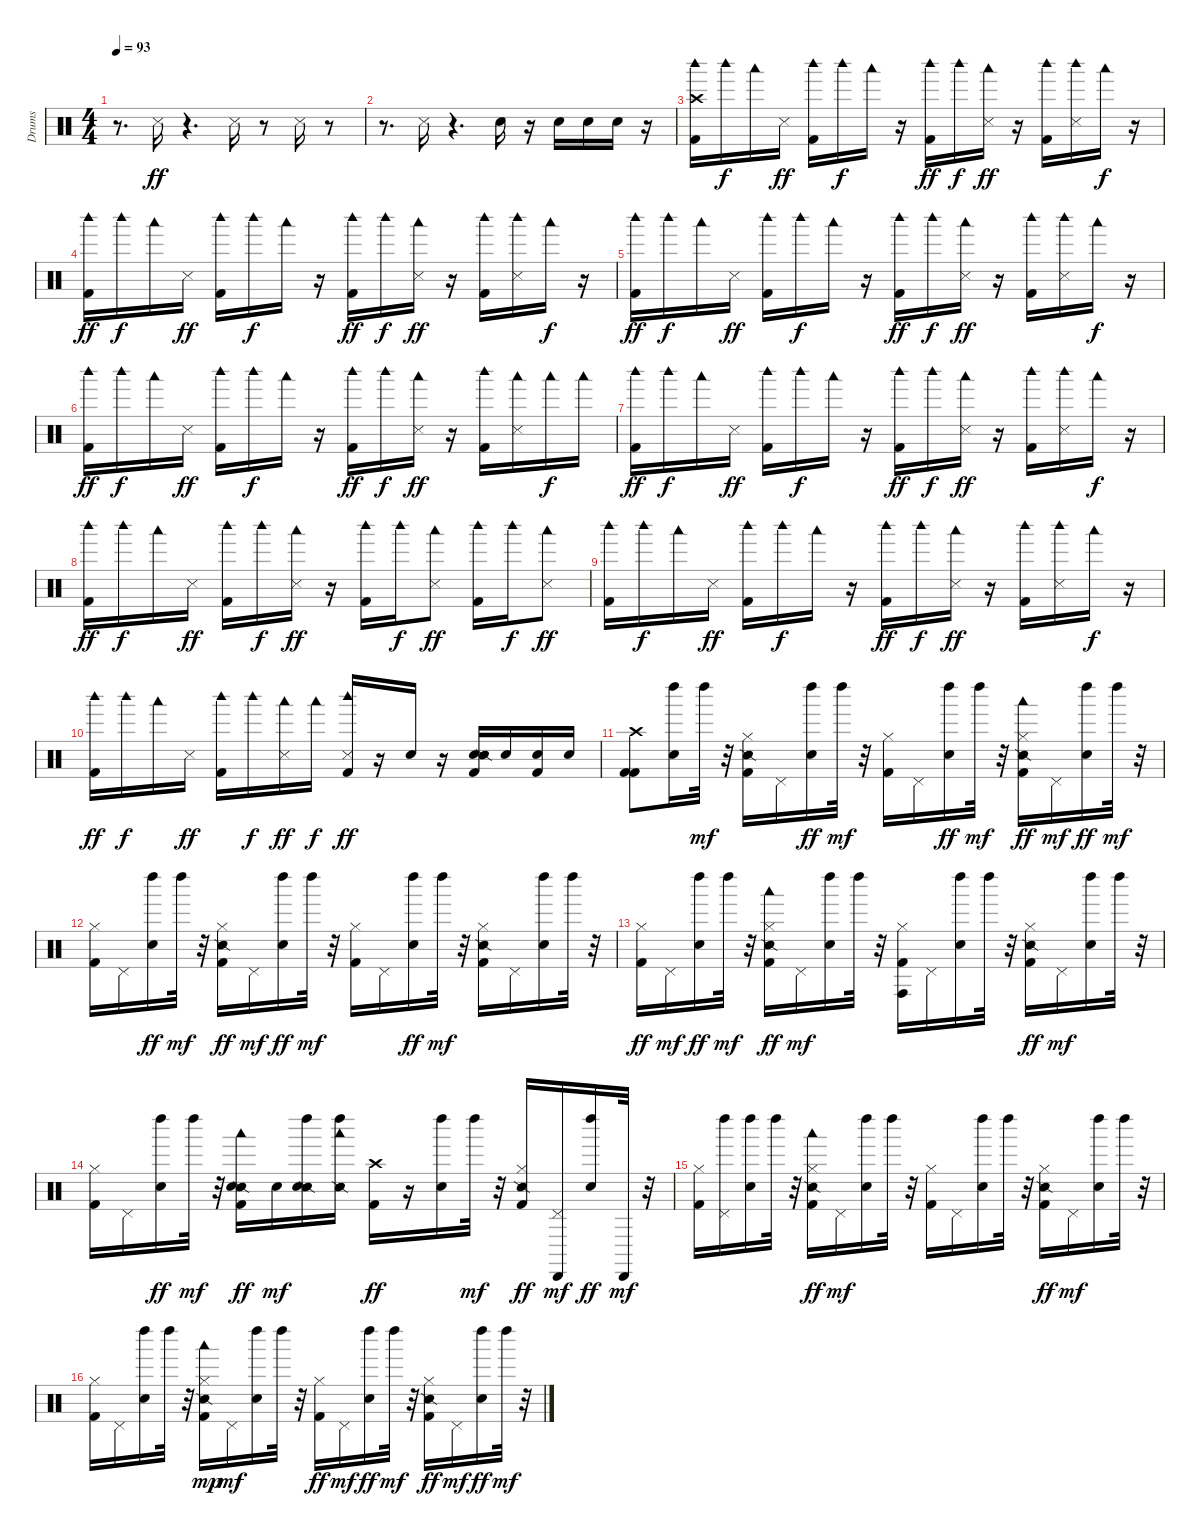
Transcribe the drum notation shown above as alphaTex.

\track ("Drums" "Drums") {instrument percussion}
\staff {score}
\articulation defaults
\ts (4 4)
\tempo 93
\clef neutral
\ks c
r.8{d dy ff} "Metronome (hit)".16 r.4{d} "Metronome (hit)".16 r.8 "Metronome (hit)".16 r.8 |
r.8{d} "Metronome (hit)".16 r.4{d} "Snare (hit) 2".16 r.16 "Electric Snare (hit)".16 "Electric Snare (hit)".16 "Snare (hit) 2".16 r.16 |
("Woodblock high (hit)" "Crash high (hit)" "Kick (hit) 2").16 "Woodblock high (hit)".16{dy f} "Woodblock low (hit)".16 "Metronome (hit)".16{dy ff} ("Woodblock high (hit)" "Kick (hit) 2").16 "Woodblock high (hit)".16{dy f} "Woodblock low (hit)".16 r.16 ("Kick (hit) 2" "Woodblock high (hit)").16{dy ff} "Woodblock high (hit)".16{dy f} ("Woodblock low (hit)" "Metronome (hit)").16{dy ff} r.16 ("Kick (hit) 2" "Woodblock high (hit)").16 ("Metronome (hit)" "Woodblock high (hit)").16 "Woodblock low (hit)".16{dy f} r.16 |
("Woodblock high (hit)" "Kick (hit) 2").16{dy ff} "Woodblock high (hit)".16{dy f} "Woodblock low (hit)".16 "Metronome (hit)".16{dy ff} ("Kick (hit) 2" "Woodblock high (hit)").16 "Woodblock high (hit)".16{dy f} "Woodblock low (hit)".16 r.16 ("Woodblock high (hit)" "Kick (hit) 2").16{dy ff} "Woodblock high (hit)".16{dy f} ("Woodblock low (hit)" "Metronome (hit)").16{dy ff} r.16 ("Woodblock high (hit)" "Kick (hit) 2").16 ("Woodblock high (hit)" "Metronome (hit)").16 "Woodblock low (hit)".16{dy f} r.16 |
("Woodblock high (hit)" "Kick (hit) 2").16{dy ff} "Woodblock high (hit)".16{dy f} "Woodblock low (hit)".16 "Metronome (hit)".16{dy ff} ("Woodblock high (hit)" "Kick (hit) 2").16 "Woodblock high (hit)".16{dy f} "Woodblock low (hit)".16 r.16 ("Kick (hit) 2" "Woodblock high (hit)").16{dy ff} "Woodblock high (hit)".16{dy f} ("Metronome (hit)" "Woodblock low (hit)").16{dy ff} r.16 ("Kick (hit) 2" "Woodblock high (hit)").16 ("Metronome (hit)" "Woodblock high (hit)").16 "Woodblock low (hit)".16{dy f} r.16 |
("Kick (hit) 2" "Woodblock high (hit)").16{dy ff} "Woodblock high (hit)".16{dy f} "Woodblock low (hit)".16 "Metronome (hit)".16{dy ff} ("Woodblock high (hit)" "Kick (hit) 2").16 "Woodblock high (hit)".16{dy f} "Woodblock low (hit)".16 r.16 ("Kick (hit) 2" "Woodblock high (hit)").16{dy ff} "Woodblock high (hit)".16{dy f} ("Woodblock low (hit)" "Metronome (hit)").16{dy ff} r.16 ("Woodblock high (hit)" "Kick (hit) 2").16 ("Woodblock low (hit)" "Metronome (hit)").16 "Woodblock low (hit)".16{dy f} "Woodblock low (hit)".16 |
("Kick (hit) 2" "Woodblock high (hit)").16{dy ff} "Woodblock high (hit)".16{dy f} "Woodblock low (hit)".16 "Metronome (hit)".16{dy ff} ("Kick (hit) 2" "Woodblock high (hit)").16 "Woodblock high (hit)".16{dy f} "Woodblock low (hit)".16 r.16 ("Woodblock high (hit)" "Kick (hit) 2").16{dy ff} "Woodblock high (hit)".16{dy f} ("Metronome (hit)" "Woodblock low (hit)").16{dy ff} r.16 ("Woodblock high (hit)" "Kick (hit) 2").16 ("Metronome (hit)" "Woodblock high (hit)").16 "Woodblock low (hit)".16{dy f} r.16 |
("Kick (hit) 2" "Woodblock high (hit)").16{dy ff} "Woodblock high (hit)".16{dy f} "Woodblock low (hit)".16 "Metronome (hit)".16{dy ff} ("Woodblock high (hit)" "Kick (hit) 2").16 "Woodblock high (hit)".16{dy f} ("Woodblock low (hit)" "Metronome (hit)").16{dy ff} r.16 ("Woodblock high (hit)" "Kick (hit) 2").16 "Woodblock high (hit)".16{dy f} ("Woodblock low (hit)" "Metronome (hit)").8{dy ff} ("Woodblock high (hit)" "Kick (hit) 2").16 "Woodblock high (hit)".16{dy f} ("Metronome (hit)" "Woodblock low (hit)").8{dy ff} |
("Woodblock high (hit)" "Kick (hit) 2").16 "Woodblock high (hit)".16{dy f} "Woodblock low (hit)".16 "Metronome (hit)".16{dy ff} ("Kick (hit) 2" "Woodblock high (hit)").16 "Woodblock high (hit)".16{dy f} "Woodblock low (hit)".16 r.16 ("Kick (hit) 2" "Woodblock high (hit)").16{dy ff} "Woodblock high (hit)".16{dy f} ("Metronome (hit)" "Woodblock low (hit)").16{dy ff} r.16 ("Woodblock high (hit)" "Kick (hit) 2").16 ("Metronome (hit)" "Woodblock high (hit)").16 "Woodblock low (hit)".16{dy f} r.16 |
("Kick (hit) 2" "Woodblock high (hit)").16{dy ff} "Woodblock high (hit)".16{dy f} "Woodblock low (hit)".16 "Metronome (hit)".16{dy ff} ("Kick (hit) 2" "Woodblock high (hit)").16 "Woodblock high (hit)".16{dy f} ("Metronome (hit)" "Woodblock low (hit)").16{dy ff} "Woodblock low (hit)".16{dy f} ("Woodblock high (hit)" "Metronome (hit)" "Kick (hit) 2").16{dy ff} r.16 "Snare (hit) 2".16 r.16 ("Snare (hit) 2" "Snare (side stick) 2" "Kick (hit) 2").16 "Snare (hit) 2".16 ("Kick (hit) 2" "Snare (hit) 2").16 "Snare (hit) 2".16 |
("Crash high (hit)" "Kick (hit) 2" "Kick (hit) 2").8 ("Left Maraca (hit)" "Snare (hit) 2").16 "Left Maraca (hit)".32{dy mf} r.32 ("Kick (hit) 2" "Snare (side stick) 2" "Hi-Hat (closed)").16 "Pedal Hi-Hat (hit)".16 ("Left Maraca (hit)" "Snare (hit) 2").16{dy ff} "Left Maraca (hit)".32{dy mf} r.32 ("Kick (hit) 2" "Hi-Hat (closed)").16 "Pedal Hi-Hat (hit)".16 ("Left Maraca (hit)" "Snare (hit) 2").16{dy ff} "Left Maraca (hit)".32{dy mf} r.32 ("Hi-Hat (closed)" "Snare (side stick) 2" "Woodblock low (hit)" "Kick (hit) 2").16{dy ff} "Pedal Hi-Hat (hit)".16{dy mf} ("Left Maraca (hit)" "Snare (hit) 2").16{dy ff} "Left Maraca (hit)".32{dy mf} r.32 |
("Kick (hit) 2" "Hi-Hat (closed)").16 "Pedal Hi-Hat (hit)".16 ("Left Maraca (hit)" "Snare (hit) 2").16{dy ff} "Left Maraca (hit)".32{dy mf} r.32 ("Hi-Hat (closed)" "Snare (side stick) 2" "Kick (hit) 2").16{dy ff} "Pedal Hi-Hat (hit)".16{dy mf} ("Left Maraca (hit)" "Snare (hit) 2").16{dy ff} "Left Maraca (hit)".32{dy mf} r.32 ("Kick (hit) 2" "Hi-Hat (closed)").16 "Pedal Hi-Hat (hit)".16 ("Left Maraca (hit)" "Snare (hit) 2").16{dy ff} "Left Maraca (hit)".32{dy mf} r.32 ("Kick (hit) 2" "Snare (side stick) 2" "Hi-Hat (closed)").16 "Pedal Hi-Hat (hit)".16 ("Snare (hit) 2" "Left Maraca (hit)").16 "Left Maraca (hit)".32 r.32 |
("Hi-Hat (closed)" "Kick (hit) 2").16{dy ff} "Pedal Hi-Hat (hit)".16{dy mf} ("Left Maraca (hit)" "Snare (hit) 2").16{dy ff} "Left Maraca (hit)".32{dy mf} r.32 ("Hi-Hat (closed)" "Woodblock low (hit)" "Snare (side stick) 2" "Kick (hit) 2").16{dy ff} "Pedal Hi-Hat (hit)".16{dy mf} ("Snare (hit) 2" "Left Maraca (hit)").16 "Left Maraca (hit)".32 r.32 ("Kick (hit) 2" "Conga high (hit)" "Hi-Hat (closed)").16 "Pedal Hi-Hat (hit)".16 ("Snare (hit) 2" "Left Maraca (hit)").16 "Left Maraca (hit)".32 r.32 ("Snare (side stick) 2" "Hi-Hat (closed)" "Kick (hit) 2").16{dy ff} "Pedal Hi-Hat (hit)".16{dy mf} ("Snare (hit) 2" "Left Maraca (hit)").16 "Left Maraca (hit)".32 r.32 |
("Kick (hit) 2" "Hi-Hat (closed)").16 "Pedal Hi-Hat (hit)".16 ("Left Maraca (hit)" "Snare (hit) 2").16{dy ff} "Left Maraca (hit)".32{dy mf} r.32 ("Snare (side stick) 2" "Kick (hit) 2" "Electric Snare (hit)" "Woodblock low (hit)").16{dy ff} "Electric Snare (hit)".16{dy mf} ("Snare (side stick) 2" "Snare (hit) 2" "Left Maraca (hit)").16 ("Snare (side stick) 2" "Left Maraca (hit)" "Woodblock low (hit)").16 ("Kick (hit) 2" "Crash high (hit)").16{dy ff} r.16 ("Left Maraca (hit)" "Snare (hit) 2").16 "Left Maraca (hit)".32{dy mf} r.32 ("Snare (side stick) 2" "Hi-Hat (closed)" "Kick (hit) 2").16{dy ff} ("Pedal Hi-Hat (hit)" "Cabasa (hit)").16{dy mf} ("Left Maraca (hit)" "Snare (hit) 2").16{dy ff} "Cabasa (hit)".32{dy mf} r.32 |
("Kick (hit) 2" "Hi-Hat (closed)").16 ("Left Maraca (hit)" "Pedal Hi-Hat (hit)").16 ("Snare (hit) 2" "Left Maraca (hit)").16 "Left Maraca (hit)".32 r.32 ("Snare (side stick) 2" "Hi-Hat (closed)" "Kick (hit) 2" "Woodblock low (hit)").16{dy ff} "Pedal Hi-Hat (hit)".16{dy mf} ("Snare (hit) 2" "Left Maraca (hit)").16 "Left Maraca (hit)".32 r.32 ("Kick (hit) 2" "Hi-Hat (closed)").16 "Pedal Hi-Hat (hit)".16 ("Snare (hit) 2" "Left Maraca (hit)").16 "Left Maraca (hit)".32 r.32 ("Snare (side stick) 2" "Hi-Hat (closed)" "Kick (hit) 2").16{dy ff} "Pedal Hi-Hat (hit)".16{dy mf} ("Snare (hit) 2" "Left Maraca (hit)").16 "Left Maraca (hit)".32 r.32 |
("Kick (hit) 2" "Hi-Hat (closed)").16 "Pedal Hi-Hat (hit)".16 ("Snare (hit) 2" "Left Maraca (hit)").16 "Left Maraca (hit)".32 r.32 ("Kick (hit) 2" "Hi-Hat (closed)" "Woodblock low (hit)" "Snare (side stick) 2").16{dy mp} "Pedal Hi-Hat (hit)".16{dy mf} ("Snare (hit) 2" "Left Maraca (hit)").16 "Left Maraca (hit)".32 r.32 ("Hi-Hat (closed)" "Kick (hit) 2").16{dy ff} "Pedal Hi-Hat (hit)".16{dy mf} ("Left Maraca (hit)" "Snare (hit) 2").16{dy ff} "Left Maraca (hit)".32{dy mf} r.32 ("Snare (side stick) 2" "Hi-Hat (closed)" "Kick (hit) 2").16{dy ff} "Pedal Hi-Hat (hit)".16{dy mf} ("Left Maraca (hit)" "Snare (hit) 2").16{dy ff} "Left Maraca (hit)".32{dy mf} r.32
